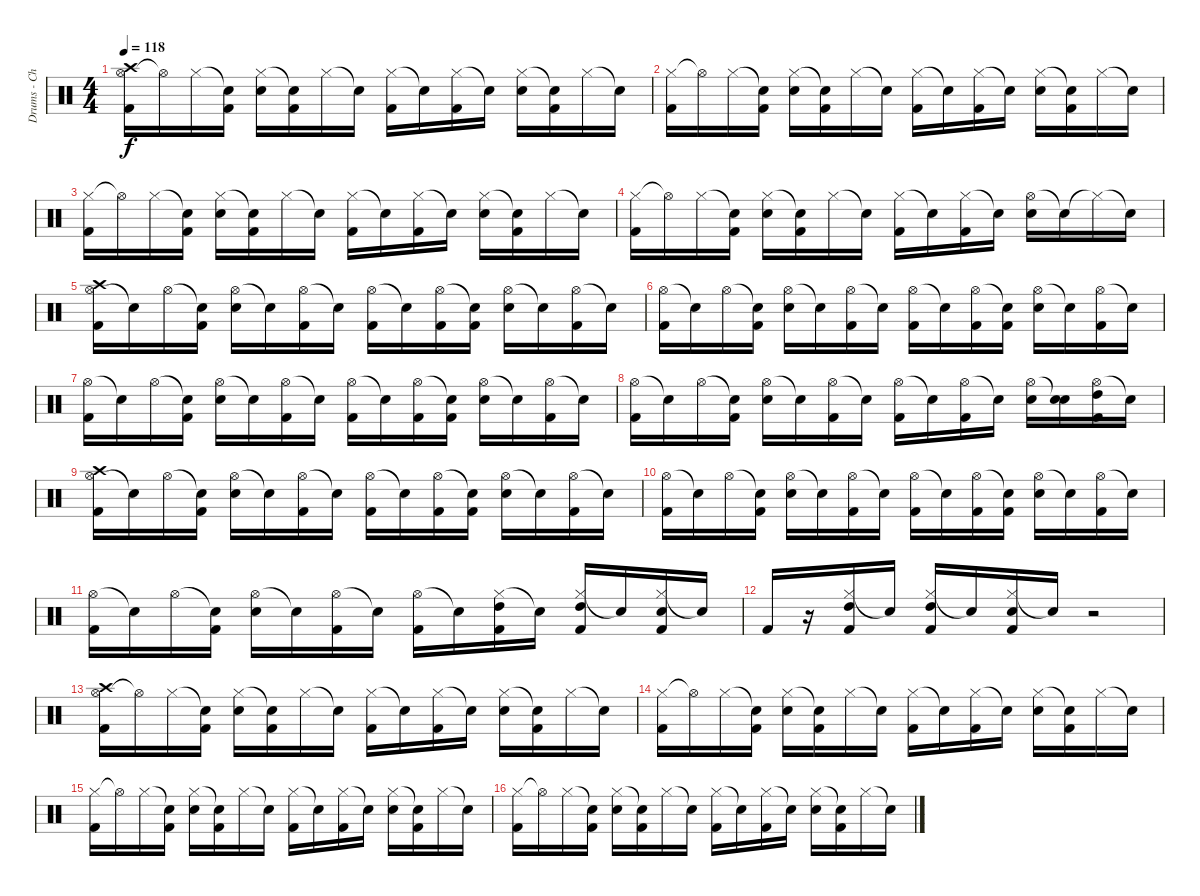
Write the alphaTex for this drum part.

\track ("Drums - Chad" "Drums - Ch") {instrument percussion}
\staff {score}
\articulation defaults
\ts (4 4)
\tempo 118
\clef neutral
\ks c
("Hi-Hat (open)" "Kick (hit) 2" "Crash high (hit)").16{dy f} "Hi-Hat (open)"{t}.16 "Hi-Hat (closed)".16 ("Snare (hit)"{t} "Kick (hit) 2").16 ("Hi-Hat (closed)" "Electric Snare (hit)").16 ("Snare (hit)"{t} "Kick (hit) 2").16 "Hi-Hat (closed)".16 "Snare (hit)"{t}.16 ("Hi-Hat (closed)" "Kick (hit) 2").16 "Snare (hit)"{t}.16 ("Hi-Hat (closed)" "Kick (hit) 2").16 "Snare (hit)"{t}.16 ("Hi-Hat (closed)" "Electric Snare (hit)").16 ("Snare (hit)"{t} "Kick (hit) 2").16 "Hi-Hat (closed)".16 "Snare (hit)"{t}.16 |
("Hi-Hat (closed)" "Kick (hit) 2").16 "Hi-Hat (open)"{t}.16 "Hi-Hat (closed)".16 ("Snare (hit)"{t} "Kick (hit) 2").16 ("Hi-Hat (closed)" "Electric Snare (hit)").16 ("Snare (hit)"{t} "Kick (hit) 2").16 "Hi-Hat (closed)".16 "Snare (hit)"{t}.16 ("Hi-Hat (closed)" "Kick (hit) 2").16 "Snare (hit)"{t}.16 ("Hi-Hat (closed)" "Kick (hit) 2").16 "Snare (hit)"{t}.16 ("Hi-Hat (closed)" "Electric Snare (hit)").16 ("Snare (hit)"{t} "Kick (hit) 2").16 "Hi-Hat (closed)".16 "Snare (hit)"{t}.16 |
("Hi-Hat (closed)" "Kick (hit) 2").16 "Hi-Hat (open)"{t}.16 "Hi-Hat (closed)".16 ("Snare (hit)"{t} "Kick (hit) 2").16 ("Hi-Hat (closed)" "Electric Snare (hit)").16 ("Snare (hit)"{t} "Kick (hit) 2").16 "Hi-Hat (closed)".16 "Snare (hit)"{t}.16 ("Hi-Hat (closed)" "Kick (hit) 2").16 "Snare (hit)"{t}.16 ("Hi-Hat (closed)" "Kick (hit) 2").16 "Snare (hit)"{t}.16 ("Hi-Hat (closed)" "Electric Snare (hit)").16 ("Snare (hit)"{t} "Kick (hit) 2").16 "Hi-Hat (closed)".16 "Snare (hit)"{t}.16 |
("Hi-Hat (closed)" "Kick (hit) 2").16 "Hi-Hat (open)"{t}.16 "Hi-Hat (closed)".16 ("Snare (hit)"{t} "Kick (hit) 2").16 ("Hi-Hat (closed)" "Electric Snare (hit)").16 ("Snare (hit)"{t} "Kick (hit) 2").16 "Hi-Hat (closed)".16 "Snare (hit)"{t}.16 ("Hi-Hat (closed)" "Kick (hit) 2").16 "Snare (hit)"{t}.16 ("Hi-Hat (closed)" "Kick (hit) 2").16 "Snare (hit)"{t}.16 ("Hi-Hat (open)" "Electric Snare (hit)").16 "Snare (hit)"{t}.16 "Hi-Hat (closed)"{t}.16 "Snare (hit)"{t}.16 |
("Hi-Hat (open)" "Kick (hit) 2" "Crash high (hit)").16{volume 14} "Snare (hit)"{t}.16 "Hi-Hat (open)".16 ("Snare (hit)"{t} "Kick (hit) 2").16 ("Hi-Hat (open)" "Electric Snare (hit)").16 "Snare (hit)"{t}.16 ("Hi-Hat (open)" "Kick (hit) 2").16 "Snare (hit)"{t}.16 ("Hi-Hat (open)" "Kick (hit) 2").16 "Snare (hit)"{t}.16 ("Hi-Hat (open)" "Kick (hit) 2").16 ("Snare (hit)"{t} "Kick (hit) 2").16 ("Hi-Hat (open)" "Electric Snare (hit)").16 "Snare (hit)"{t}.16 ("Hi-Hat (open)" "Kick (hit) 2").16 "Snare (hit)"{t}.16 |
("Hi-Hat (open)" "Kick (hit) 2").16 "Snare (hit)"{t}.16 "Hi-Hat (open)".16 ("Snare (hit)"{t} "Kick (hit) 2").16 ("Hi-Hat (open)" "Electric Snare (hit)").16 "Snare (hit)"{t}.16 ("Hi-Hat (open)" "Kick (hit) 2").16 "Snare (hit)"{t}.16 ("Hi-Hat (open)" "Kick (hit) 2").16 "Snare (hit)"{t}.16 ("Hi-Hat (open)" "Kick (hit) 2").16 ("Snare (hit)"{t} "Kick (hit) 2").16 ("Hi-Hat (open)" "Electric Snare (hit)").16 "Snare (hit)"{t}.16 ("Hi-Hat (open)" "Kick (hit) 2").16 "Snare (hit)"{t}.16 |
("Hi-Hat (open)" "Kick (hit) 2").16 "Snare (hit)"{t}.16 "Hi-Hat (open)".16 ("Snare (hit)"{t} "Kick (hit) 2").16 ("Hi-Hat (open)" "Electric Snare (hit)").16 "Snare (hit)"{t}.16 ("Hi-Hat (open)" "Kick (hit) 2").16 "Snare (hit)"{t}.16 ("Hi-Hat (open)" "Kick (hit) 2").16 "Snare (hit)"{t}.16 ("Hi-Hat (open)" "Kick (hit) 2").16 ("Snare (hit)"{t} "Kick (hit) 2").16 ("Hi-Hat (open)" "Electric Snare (hit)").16 "Snare (hit)"{t}.16 ("Hi-Hat (open)" "Kick (hit) 2").16 "Snare (hit)"{t}.16 |
("Hi-Hat (open)" "Kick (hit) 2").16 "Snare (hit)"{t}.16 "Hi-Hat (open)".16 ("Snare (hit)"{t} "Kick (hit) 2").16 ("Hi-Hat (open)" "Electric Snare (hit)").16 "Snare (hit)"{t}.16 ("Hi-Hat (open)" "Kick (hit) 2").16 "Snare (hit)"{t}.16 ("Hi-Hat (open)" "Kick (hit) 2").16 "Snare (hit)"{t}.16 ("Hi-Hat (open)" "Kick (hit) 2").16 "Snare (hit)"{t}.16 ("Hi-Hat (open)" "Electric Snare (hit)").16 ("Snare (hit)"{t} "Electric Snare (hit)").16 ("Hi-Hat (open)" "Kick (hit) 2" "High Tom (hit)").16 "Snare (hit)"{t}.16 |
("Hi-Hat (open)" "Kick (hit) 2" "Crash high (hit)").16{volume 14} "Snare (hit)"{t}.16 "Hi-Hat (open)".16 ("Snare (hit)"{t} "Kick (hit) 2").16 ("Hi-Hat (open)" "Electric Snare (hit)").16 "Snare (hit)"{t}.16 ("Hi-Hat (open)" "Kick (hit) 2").16 "Snare (hit)"{t}.16 ("Hi-Hat (open)" "Kick (hit) 2").16 "Snare (hit)"{t}.16 ("Hi-Hat (open)" "Kick (hit) 2").16 ("Snare (hit)"{t} "Kick (hit) 2").16 ("Hi-Hat (open)" "Electric Snare (hit)").16 "Snare (hit)"{t}.16 ("Hi-Hat (open)" "Kick (hit) 2").16 "Snare (hit)"{t}.16 |
("Hi-Hat (open)" "Kick (hit) 2").16 "Snare (hit)"{t}.16 "Hi-Hat (open)".16 ("Snare (hit)"{t} "Kick (hit) 2").16 ("Hi-Hat (open)" "Electric Snare (hit)").16 "Snare (hit)"{t}.16 ("Hi-Hat (open)" "Kick (hit) 2").16 "Snare (hit)"{t}.16 ("Hi-Hat (open)" "Kick (hit) 2").16 "Snare (hit)"{t}.16 ("Hi-Hat (open)" "Kick (hit) 2").16 ("Snare (hit)"{t} "Kick (hit) 2").16 ("Hi-Hat (open)" "Electric Snare (hit)").16 "Snare (hit)"{t}.16 ("Hi-Hat (open)" "Kick (hit) 2").16 "Snare (hit)"{t}.16 |
("Hi-Hat (open)" "Kick (hit) 2").16 "Snare (hit)"{t}.16 "Hi-Hat (open)".16 ("Snare (hit)"{t} "Kick (hit) 2").16 ("Hi-Hat (open)" "Electric Snare (hit)").16 "Snare (hit)"{t}.16 ("Hi-Hat (open)" "Kick (hit) 2").16 "Snare (hit)"{t}.16 ("Hi-Hat (open)" "Kick (hit) 2").16 "Snare (hit)"{t}.16 ("Hi-Hat (closed)" "Kick (hit) 2" "High Tom (hit)").16 "Snare (hit)"{t}.16 ("Hi-Hat (closed)" "Kick (hit) 2" "High Tom (hit)").16 "Snare (hit)"{t}.16 ("Hi-Hat (closed)" "Kick (hit) 2" "Electric Snare (hit)").16 "Snare (hit)"{t}.16 |
"Kick (hit) 2".16 r.16 ("Hi-Hat (closed)" "Kick (hit) 2" "High Tom (hit)").16 "Snare (hit)"{t}.16 ("Hi-Hat (closed)" "Kick (hit) 2" "High Tom (hit)").16 "Snare (hit)"{t}.16 ("Hi-Hat (closed)" "Kick (hit) 2" "Electric Snare (hit)").16 "Snare (hit)"{t}.16 r.2 |
("Hi-Hat (open)" "Kick (hit) 2" "Crash high (hit)").16 "Hi-Hat (open)"{t}.16 "Hi-Hat (closed)".16 ("Snare (hit)"{t} "Kick (hit) 2").16 ("Hi-Hat (closed)" "Electric Snare (hit)").16 ("Snare (hit)"{t} "Kick (hit) 2").16 "Hi-Hat (closed)".16 "Snare (hit)"{t}.16 ("Hi-Hat (closed)" "Kick (hit) 2").16 "Snare (hit)"{t}.16 ("Hi-Hat (closed)" "Kick (hit) 2").16 "Snare (hit)"{t}.16 ("Hi-Hat (closed)" "Electric Snare (hit)").16 ("Snare (hit)"{t} "Kick (hit) 2").16 "Hi-Hat (closed)".16 "Snare (hit)"{t}.16 |
("Hi-Hat (closed)" "Kick (hit) 2").16 "Hi-Hat (open)"{t}.16 "Hi-Hat (closed)".16 ("Snare (hit)"{t} "Kick (hit) 2").16 ("Hi-Hat (closed)" "Electric Snare (hit)").16 ("Snare (hit)"{t} "Kick (hit) 2").16 "Hi-Hat (closed)".16 "Snare (hit)"{t}.16 ("Hi-Hat (closed)" "Kick (hit) 2").16 "Snare (hit)"{t}.16 ("Hi-Hat (closed)" "Kick (hit) 2").16 "Snare (hit)"{t}.16 ("Hi-Hat (closed)" "Electric Snare (hit)").16 ("Snare (hit)"{t} "Kick (hit) 2").16 "Hi-Hat (closed)".16 "Snare (hit)"{t}.16 |
("Hi-Hat (closed)" "Kick (hit) 2").16 "Hi-Hat (open)"{t}.16 "Hi-Hat (closed)".16 ("Snare (hit)"{t} "Kick (hit) 2").16 ("Hi-Hat (closed)" "Electric Snare (hit)").16 ("Snare (hit)"{t} "Kick (hit) 2").16 "Hi-Hat (closed)".16 "Snare (hit)"{t}.16 ("Hi-Hat (closed)" "Kick (hit) 2").16 "Snare (hit)"{t}.16 ("Hi-Hat (closed)" "Kick (hit) 2").16 "Snare (hit)"{t}.16 ("Hi-Hat (closed)" "Electric Snare (hit)").16 ("Snare (hit)"{t} "Kick (hit) 2").16 "Hi-Hat (closed)".16 "Snare (hit)"{t}.16 |
("Hi-Hat (closed)" "Kick (hit) 2").16 "Hi-Hat (open)"{t}.16 "Hi-Hat (closed)".16 ("Snare (hit)"{t} "Kick (hit) 2").16 ("Hi-Hat (closed)" "Electric Snare (hit)").16 ("Snare (hit)"{t} "Kick (hit) 2").16 "Hi-Hat (closed)".16 "Snare (hit)"{t}.16 ("Hi-Hat (closed)" "Kick (hit) 2").16 "Snare (hit)"{t}.16 ("Hi-Hat (closed)" "Kick (hit) 2").16 "Snare (hit)"{t}.16 ("Hi-Hat (closed)" "Electric Snare (hit)").16 ("Snare (hit)"{t} "Kick (hit) 2").16 "Hi-Hat (closed)".16 "Snare (hit)"{t}.16
